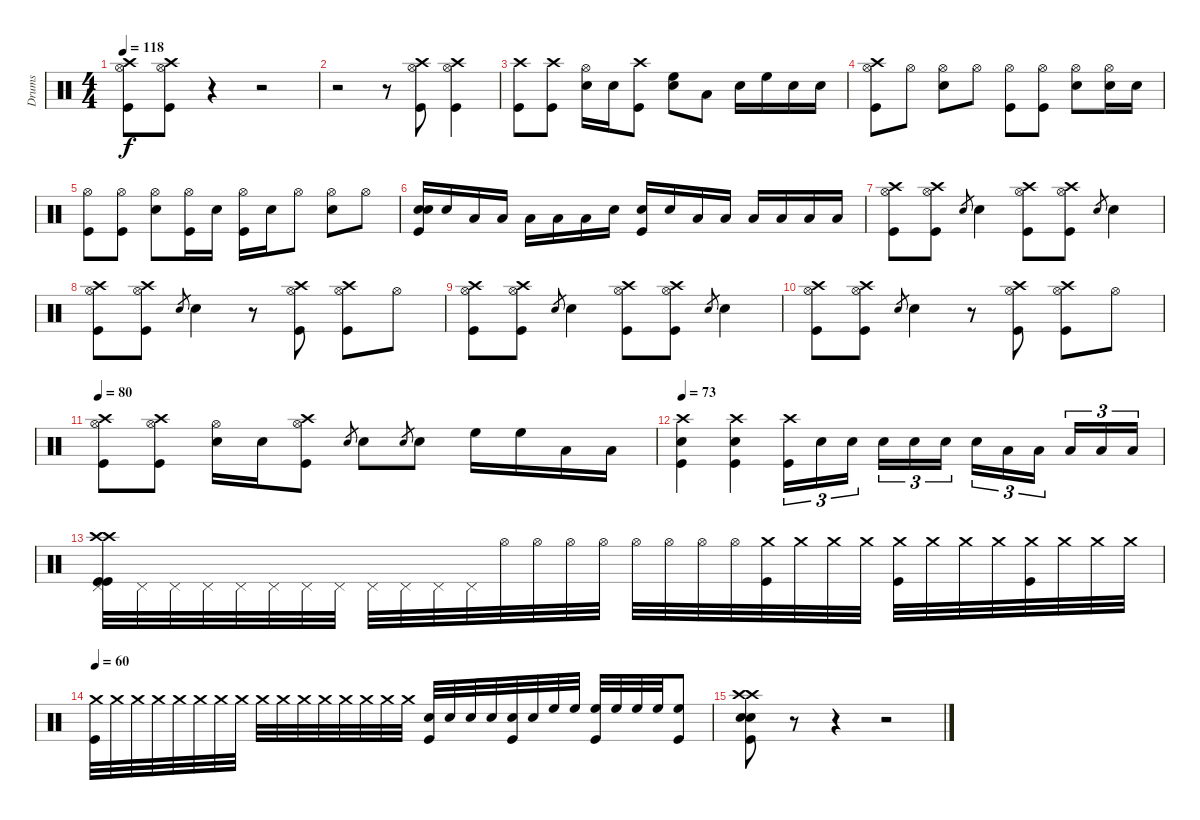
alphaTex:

\track ("Drums" "Drums") {instrument percussion}
\staff {score}
\articulation defaults
\ts (4 4)
\tempo 118
\clef neutral
\ks c
("Hi-Hat (open)" "Crash high (hit)" "Kick (hit)").8{dy f} ("Hi-Hat (open)" "Crash high (hit)" "Kick (hit)").8 r.4 r.2 |
r.2 r.8 ("Hi-Hat (open)" "Crash high (hit)" "Kick (hit)").8 ("Hi-Hat (open)" "Crash high (hit)" "Kick (hit)").4 |
("Crash high (hit)" "Kick (hit)").8 ("Crash high (hit)" "Kick (hit)").8 ("Hi-Hat (open)" "Snare (hit) 2").16 "Snare (hit) 2".16 ("Crash high (hit)" "Kick (hit)").8 ("High Floor Tom (hit)" "Snare (hit) 2").8 "Low Tom (hit)".8 "Snare (hit) 2".16 "High Floor Tom (hit)".16 "Snare (hit) 2".16 "Snare (hit) 2".16 |
("Hi-Hat (open)" "Crash high (hit)" "Kick (hit)").8 "Hi-Hat (open)".8 ("Hi-Hat (open)" "Snare (hit) 2").8 "Hi-Hat (open)".8 ("Hi-Hat (open)" "Kick (hit)").8 ("Hi-Hat (open)" "Kick (hit)").8 ("Hi-Hat (open)" "Snare (hit) 2").8 ("Hi-Hat (open)" "Snare (hit) 2").16 "Snare (hit) 2".16 |
("Hi-Hat (open)" "Kick (hit)").8 ("Hi-Hat (open)" "Kick (hit)").8 ("Hi-Hat (open)" "Snare (hit) 2").8 ("Hi-Hat (open)" "Kick (hit)").16 "Snare (hit) 2".16 ("Hi-Hat (open)" "Kick (hit)").16 "Snare (hit) 2".16 "Hi-Hat (open)".8 ("Hi-Hat (open)" "Snare (hit) 2").8 "Hi-Hat (open)".8 |
("Snare (hit) 2" "Hand Clap (hit)" "Kick (hit)").16 "Snare (hit) 2".16 "Low Tom (hit)".16 "Low Tom (hit)".16 "Low Tom (hit)".16 "Low Tom (hit)".16 "Low Tom (hit)".16 "Snare (hit) 2".16 ("Snare (hit) 2" "Kick (hit)").16 "Snare (hit) 2".16 "Low Tom (hit)".16 "Low Tom (hit)".16 "Low Tom (hit)".16 "Low Tom (hit)".16 "Low Tom (hit)".16 "Low Tom (hit)".16 |
("Hi-Hat (open)" "Crash high (hit)" "Kick (hit)").8 ("Hi-Hat (open)" "Crash high (hit)" "Kick (hit)").8 "Snare (hit) 2".8{gr} "Snare (hit) 2".4 ("Hi-Hat (open)" "Crash high (hit)" "Kick (hit)").8 ("Hi-Hat (open)" "Crash high (hit)" "Kick (hit)").8 "Snare (hit) 2".8{gr} "Snare (hit) 2".4 |
("Hi-Hat (open)" "Crash high (hit)" "Kick (hit)").8 ("Hi-Hat (open)" "Crash high (hit)" "Kick (hit)").8 "Snare (hit) 2".8{gr} "Snare (hit) 2".4 r.8 ("Hi-Hat (open)" "Crash high (hit)" "Kick (hit)").8 ("Hi-Hat (open)" "Crash high (hit)" "Kick (hit)").8 "Hi-Hat (open)".8 |
("Hi-Hat (open)" "Crash high (hit)" "Kick (hit)").8 ("Hi-Hat (open)" "Crash high (hit)" "Kick (hit)").8 "Snare (hit) 2".8{gr} "Snare (hit) 2".4 ("Hi-Hat (open)" "Crash high (hit)" "Kick (hit)").8 ("Hi-Hat (open)" "Crash high (hit)" "Kick (hit)").8 "Snare (hit) 2".8{gr} "Snare (hit) 2".4 |
("Hi-Hat (open)" "Crash high (hit)" "Kick (hit)").8 ("Hi-Hat (open)" "Crash high (hit)" "Kick (hit)").8 "Snare (hit) 2".8{gr} "Snare (hit) 2".4 r.8 ("Hi-Hat (open)" "Crash high (hit)" "Kick (hit)").8 ("Hi-Hat (open)" "Crash high (hit)" "Kick (hit)").8 "Hi-Hat (open)".8 |
\tempo 80
("Hi-Hat (open)" "Crash high (hit)" "Kick (hit)").8 ("Hi-Hat (open)" "Crash high (hit)" "Kick (hit)").8 ("Hi-Hat (open)" "Snare (hit) 2").16 "Snare (hit) 2".16 ("Hi-Hat (open)" "Crash high (hit)" "Kick (hit)").8 "Snare (hit) 2".8{gr} "Snare (hit) 2".8 "Snare (hit) 2".8{gr} "Snare (hit) 2".8 "High Floor Tom (hit)".16 "High Floor Tom (hit)".16 "Low Tom (hit)".16 "Low Tom (hit)".16 |
\tempo 73
("Snare (hit) 2" "Crash high (hit)" "Kick (hit)").4 ("Snare (hit) 2" "Crash high (hit)" "Kick (hit)").4 ("Crash high (hit)" "Kick (hit)").16{tu (3 2)} "Snare (hit) 2".16{tu (3 2)} "Snare (hit) 2".16{tu (3 2)} "Snare (hit) 2".16{tu (3 2)} "Snare (hit) 2".16{tu (3 2)} "Snare (hit) 2".16{tu (3 2)} "Snare (hit) 2".16{tu (3 2)} "Low Tom (hit)".16{tu (3 2)} "Low Tom (hit)".16{tu (3 2)} "Low Tom (hit)".16{tu (3 2)} "Low Tom (hit)".16{tu (3 2)} "Low Tom (hit)".16{tu (3 2)} |
("Pedal Hi-Hat (hit)" "Crash high (hit)" "Crash high (hit)" "Kick (hit)" "Kick (hit)").32 "Pedal Hi-Hat (hit)".32 "Pedal Hi-Hat (hit)".32 "Pedal Hi-Hat (hit)".32 "Pedal Hi-Hat (hit)".32 "Pedal Hi-Hat (hit)".32 "Pedal Hi-Hat (hit)".32 "Pedal Hi-Hat (hit)".32 "Pedal Hi-Hat (hit)".32 "Pedal Hi-Hat (hit)".32 "Pedal Hi-Hat (hit)".32 "Pedal Hi-Hat (hit)".32 "Hi-Hat (open)".32 "Hi-Hat (open)".32 "Hi-Hat (open)".32 "Hi-Hat (open)".32 "Hi-Hat (open)".32 "Hi-Hat (open)".32 "Hi-Hat (open)".32 "Hi-Hat (open)".32 ("Crash medium (hit)" "Kick (hit)").32 "Crash medium (hit)".32 "Crash medium (hit)".32 "Crash medium (hit)".32 ("Crash medium (hit)" "Kick (hit)").32 "Crash medium (hit)".32 "Crash medium (hit)".32 "Crash medium (hit)".32 ("Crash medium (hit)" "Kick (hit)").32 "Crash medium (hit)".32 "Crash medium (hit)".32 "Crash medium (hit)".32 |
\tempo 60
("Crash medium (hit)" "Kick (hit)").32 "Crash medium (hit)".32 "Crash medium (hit)".32 "Crash medium (hit)".32 "Crash medium (hit)".32 "Crash medium (hit)".32 "Crash medium (hit)".32 "Crash medium (hit)".32 "Crash medium (hit)".32 "Crash medium (hit)".32 "Crash medium (hit)".32 "Crash medium (hit)".32 "Crash medium (hit)".32 "Crash medium (hit)".32 "Crash medium (hit)".32 "Crash medium (hit)".32 ("Snare (hit) 2" "Kick (hit)").32 "Snare (hit) 2".32 "Snare (hit) 2".32 "Snare (hit) 2".32 ("Snare (hit) 2" "Kick (hit)").32 "Snare (hit) 2".32 "High Floor Tom (hit)".32 "High Floor Tom (hit)".32 ("High Floor Tom (hit)" "Kick (hit)").32 "High Floor Tom (hit)".32 "High Floor Tom (hit)".32 "High Floor Tom (hit)".32 ("High Floor Tom (hit)" "Kick (hit)").8 |
("Snare (hit) 2" "Snare (hit) 2" "Crash high (hit)" "Crash high (hit)" "Kick (hit)").8 r.8 r.4 r.2
